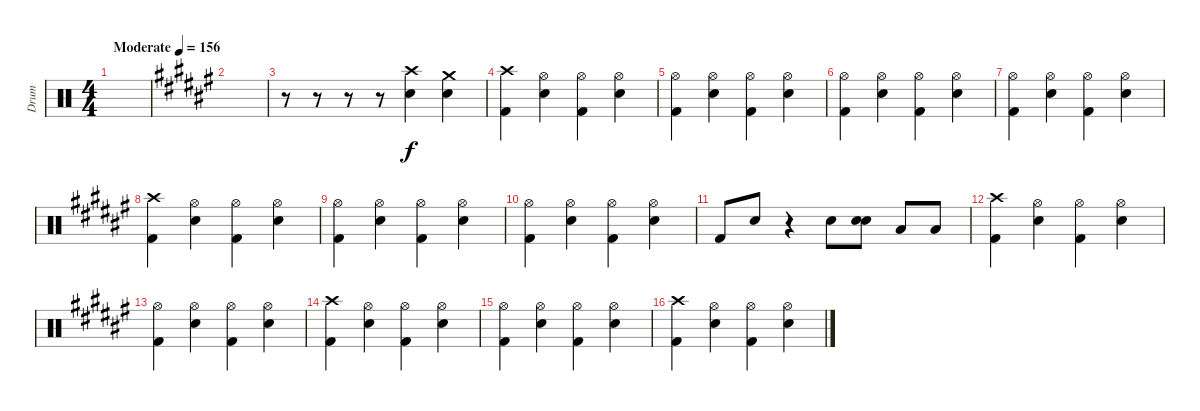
\track ("Drum" "Drum") {instrument percussion}
\staff {score}
\articulation defaults
\ts (4 4)
\tempo (156 "Moderate")
\clef neutral
\ks c
|
\ks f#
|
r.8 r.8 r.8 r.8 ("Crash high (hit)" "Electric Snare (hit)").4 ("Crash medium (hit)" "Electric Snare (hit)").4 |
("Crash high (hit)" "Kick (hit) 2").4 ("Hi-Hat (open)" "Electric Snare (hit)").4 ("Hi-Hat (open)" "Kick (hit) 2").4 ("Hi-Hat (open)" "Electric Snare (hit)").4 |
("Hi-Hat (open)" "Kick (hit) 2").4 ("Hi-Hat (open)" "Electric Snare (hit)").4 ("Hi-Hat (open)" "Kick (hit) 2").4 ("Hi-Hat (open)" "Electric Snare (hit)").4 |
("Hi-Hat (open)" "Kick (hit) 2").4 ("Hi-Hat (open)" "Electric Snare (hit)").4 ("Hi-Hat (open)" "Kick (hit) 2").4 ("Hi-Hat (open)" "Electric Snare (hit)").4 |
("Hi-Hat (open)" "Kick (hit) 2").4 ("Hi-Hat (open)" "Electric Snare (hit)").4 ("Hi-Hat (open)" "Kick (hit) 2").4 ("Hi-Hat (open)" "Electric Snare (hit)").4 |
("Crash high (hit)" "Kick (hit) 2").4 ("Hi-Hat (open)" "Electric Snare (hit)").4 ("Hi-Hat (open)" "Kick (hit) 2").4 ("Hi-Hat (open)" "Electric Snare (hit)").4 |
("Hi-Hat (open)" "Kick (hit) 2").4 ("Hi-Hat (open)" "Electric Snare (hit)").4 ("Hi-Hat (open)" "Kick (hit) 2").4 ("Hi-Hat (open)" "Electric Snare (hit)").4 |
("Hi-Hat (open)" "Kick (hit) 2").4 ("Hi-Hat (open)" "Electric Snare (hit)").4 ("Hi-Hat (open)" "Kick (hit) 2").4 ("Hi-Hat (open)" "Electric Snare (hit)").4 |
"Kick (hit) 2".8 "Electric Snare (hit)".8 r.4 "Electric Snare (hit)".8 ("Electric Snare (hit)" "Snare (hit)").8 "Low Tom (hit)".8 "Low Tom (hit)".8 |
("Crash high (hit)" "Kick (hit) 2").4 ("Hi-Hat (open)" "Electric Snare (hit)").4 ("Hi-Hat (open)" "Kick (hit) 2").4 ("Hi-Hat (open)" "Electric Snare (hit)").4 |
("Hi-Hat (open)" "Kick (hit) 2").4 ("Hi-Hat (open)" "Electric Snare (hit)").4 ("Hi-Hat (open)" "Kick (hit) 2").4 ("Hi-Hat (open)" "Electric Snare (hit)").4 |
("Crash high (hit)" "Kick (hit) 2").4 ("Hi-Hat (open)" "Electric Snare (hit)").4 ("Hi-Hat (open)" "Kick (hit) 2").4 ("Hi-Hat (open)" "Electric Snare (hit)").4 |
("Hi-Hat (open)" "Kick (hit) 2").4 ("Hi-Hat (open)" "Electric Snare (hit)").4 ("Hi-Hat (open)" "Kick (hit) 2").4 ("Hi-Hat (open)" "Electric Snare (hit)").4 |
("Crash high (hit)" "Kick (hit) 2").4 ("Hi-Hat (open)" "Electric Snare (hit)").4 ("Hi-Hat (open)" "Kick (hit) 2").4 ("Hi-Hat (open)" "Electric Snare (hit)").4
